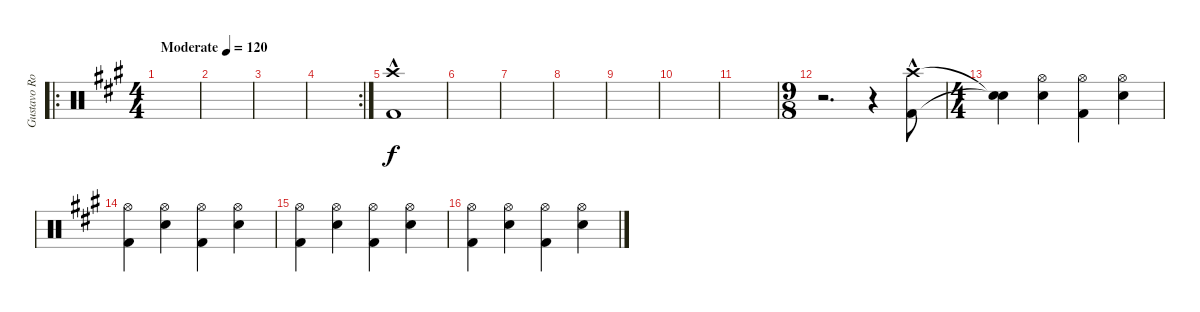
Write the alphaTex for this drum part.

\track ("Gustavo Rowek" "Gustavo Ro") {instrument percussion}
\staff {score}
\articulation defaults
\ro
\ts (4 4)
\tempo (120 "Moderate")
\clef neutral
\ks a
|
|
|
\rc 2
|
("Crash high (hit)"{hac} "Kick (hit) 2"{hac}).1 |
|
|
|
|
|
|
\ts (9 8)
r.2{d} r.4 ("Crash high (hit)"{hac} "Kick (hit) 2"{hac}).8 |
\ts (4 4)
("Snare (hit)"{t} "Snare (hit)"{t}).4 ("Hi-Hat (open)" "Snare (hit) 2").4 ("Hi-Hat (open)" "Kick (hit) 2").4 ("Hi-Hat (open)" "Snare (hit) 2").4 |
("Hi-Hat (open)" "Kick (hit) 2").4 ("Hi-Hat (open)" "Snare (hit) 2").4 ("Hi-Hat (open)" "Kick (hit) 2").4 ("Hi-Hat (open)" "Snare (hit) 2").4 |
("Hi-Hat (open)" "Kick (hit) 2").4 ("Hi-Hat (open)" "Snare (hit) 2").4 ("Hi-Hat (open)" "Kick (hit) 2").4 ("Hi-Hat (open)" "Snare (hit) 2").4 |
("Hi-Hat (open)" "Kick (hit) 2").4 ("Hi-Hat (open)" "Snare (hit) 2").4 ("Hi-Hat (open)" "Kick (hit) 2").4 ("Hi-Hat (open)" "Snare (hit) 2").4
